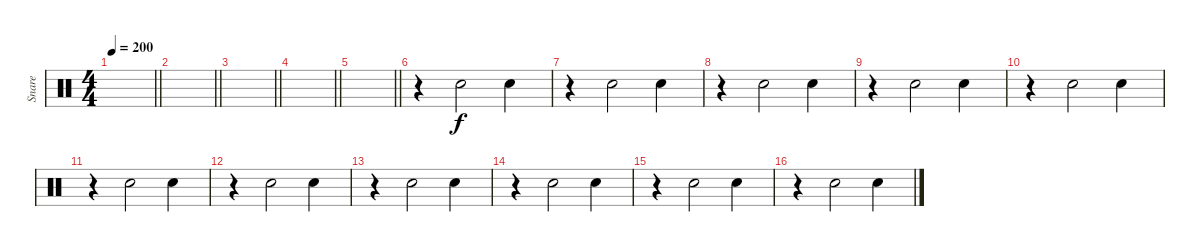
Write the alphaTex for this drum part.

\track ("Snare" "Snare") {instrument percussion}
\staff {score}
\articulation defaults
\ts (4 4)
\tempo 200
\clef neutral
\barLineRight lightlight
\ks c
|
\barLineRight lightlight
|
\barLineRight lightlight
|
\barLineRight lightlight
|
\barLineRight lightlight
|
r.4 "Snare (hit) 2".2 "Snare (hit) 2".4 |
r.4 "Snare (hit) 2".2 "Snare (hit) 2".4 |
r.4 "Snare (hit) 2".2 "Snare (hit) 2".4 |
r.4 "Snare (hit) 2".2 "Snare (hit) 2".4 |
r.4 "Snare (hit) 2".2 "Snare (hit) 2".4 |
r.4 "Snare (hit) 2".2 "Snare (hit) 2".4 |
r.4 "Snare (hit) 2".2 "Snare (hit) 2".4 |
r.4 "Snare (hit) 2".2 "Snare (hit) 2".4 |
r.4 "Snare (hit) 2".2 "Snare (hit) 2".4 |
r.4 "Snare (hit) 2".2 "Snare (hit) 2".4 |
r.4 "Snare (hit) 2".2 "Snare (hit) 2".4
